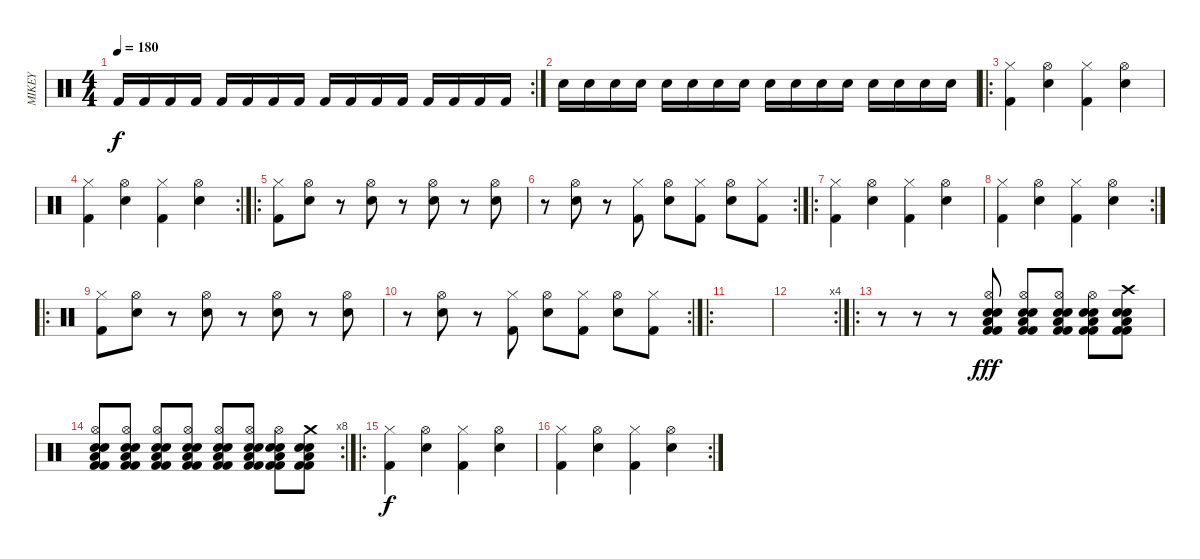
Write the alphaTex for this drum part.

\track ("MIKEY" "MIKEY") {instrument percussion}
\staff {score}
\articulation defaults
\rc 2
\ts (4 4)
\tempo 180
\clef neutral
\ks c "Kick (hit) 2".16{dy f} "Kick (hit) 2".16 "Kick (hit) 2".16 "Kick (hit) 2".16 "Kick (hit) 2".16 "Kick (hit) 2".16 "Kick (hit) 2".16 "Kick (hit) 2".16 "Kick (hit) 2".16 "Kick (hit) 2".16 "Kick (hit) 2".16 "Kick (hit) 2".16 "Kick (hit) 2".16 "Kick (hit) 2".16 "Kick (hit) 2".16 "Kick (hit) 2".16
|
"Snare (hit) 2".16 "Snare (hit) 2".16 "Snare (hit) 2".16 "Snare (hit) 2".16 "Snare (hit) 2".16 "Snare (hit) 2".16 "Snare (hit) 2".16 "Snare (hit) 2".16 "Snare (hit) 2".16 "Snare (hit) 2".16 "Snare (hit) 2".16 "Snare (hit) 2".16 "Snare (hit) 2".16 "Snare (hit) 2".16 "Snare (hit) 2".16 "Snare (hit) 2".16 |
\ro
("Hi-Hat (closed)" "Kick (hit) 2").4 ("Hi-Hat (open)" "Snare (hit) 2").4 ("Hi-Hat (closed)" "Kick (hit) 2").4 ("Hi-Hat (open)" "Snare (hit) 2").4 |
\rc 2
("Hi-Hat (closed)" "Kick (hit) 2").4 ("Hi-Hat (open)" "Snare (hit) 2").4 ("Hi-Hat (closed)" "Kick (hit) 2").4 ("Hi-Hat (open)" "Snare (hit) 2").4 |
\ro
("Hi-Hat (closed)" "Kick (hit) 2").8 ("Hi-Hat (open)" "Snare (hit) 2").8 r.8 ("Hi-Hat (open)" "Snare (hit) 2").8 r.8 ("Hi-Hat (open)" "Snare (hit) 2").8 r.8 ("Hi-Hat (open)" "Snare (hit) 2").8 |
\rc 2
r.8 ("Hi-Hat (open)" "Snare (hit) 2").8 r.8 ("Hi-Hat (closed)" "Kick (hit) 2").8 ("Hi-Hat (open)" "Snare (hit) 2").8 ("Hi-Hat (closed)" "Kick (hit) 2").8 ("Hi-Hat (open)" "Snare (hit) 2").8 ("Hi-Hat (closed)" "Kick (hit) 2").8 |
\ro
("Hi-Hat (closed)" "Kick (hit) 2").4 ("Hi-Hat (open)" "Snare (hit) 2").4 ("Hi-Hat (closed)" "Kick (hit) 2").4 ("Hi-Hat (open)" "Snare (hit) 2").4 |
\rc 2
("Hi-Hat (closed)" "Kick (hit) 2").4 ("Hi-Hat (open)" "Snare (hit) 2").4 ("Hi-Hat (closed)" "Kick (hit) 2").4 ("Hi-Hat (open)" "Snare (hit) 2").4 |
\ro
("Hi-Hat (closed)" "Kick (hit) 2").8 ("Hi-Hat (open)" "Snare (hit) 2").8 r.8 ("Hi-Hat (open)" "Snare (hit) 2").8 r.8 ("Hi-Hat (open)" "Snare (hit) 2").8 r.8 ("Hi-Hat (open)" "Snare (hit) 2").8 |
\rc 2
r.8 ("Hi-Hat (open)" "Snare (hit) 2").8 r.8 ("Hi-Hat (closed)" "Kick (hit) 2").8 ("Hi-Hat (open)" "Snare (hit) 2").8 ("Hi-Hat (closed)" "Kick (hit) 2").8 ("Hi-Hat (open)" "Snare (hit) 2").8 ("Hi-Hat (closed)" "Kick (hit) 2").8 |
\ro
|
\rc 4
|
\ro
r.8 r.8 r.8 ("Hi-Hat (open)" "Low Floor Tom (hit)" "Electric Snare (hit)" "Kick (hit) 2" "Snare (hit) 2" "Kick (hit) 2").8{dy fff} ("Hi-Hat (open)" "Low Floor Tom (hit)" "Electric Snare (hit)" "Kick (hit) 2" "Snare (hit) 2" "Kick (hit) 2").8 ("Hi-Hat (open)" "Low Floor Tom (hit)" "Electric Snare (hit)" "Kick (hit) 2" "Snare (hit) 2" "Kick (hit) 2").8 ("Hi-Hat (open)" "Low Floor Tom (hit)" "Electric Snare (hit)" "Kick (hit) 2" "Snare (hit) 2" "Kick (hit) 2").8 ("Crash high (hit)" "Low Floor Tom (hit)" "Electric Snare (hit)" "Kick (hit) 2" "Snare (hit) 2" "Kick (hit) 2").8 |
\rc 8
("Hi-Hat (open)" "Low Floor Tom (hit)" "Electric Snare (hit)" "Kick (hit) 2" "Snare (hit) 2" "Kick (hit) 2").8 ("Hi-Hat (open)" "Low Floor Tom (hit)" "Electric Snare (hit)" "Kick (hit) 2" "Snare (hit) 2" "Kick (hit) 2").8 ("Hi-Hat (open)" "Low Floor Tom (hit)" "Electric Snare (hit)" "Kick (hit) 2" "Snare (hit) 2" "Kick (hit) 2").8 ("Hi-Hat (open)" "Low Floor Tom (hit)" "Electric Snare (hit)" "Kick (hit) 2" "Snare (hit) 2" "Kick (hit) 2").8 ("Hi-Hat (open)" "Low Floor Tom (hit)" "Electric Snare (hit)" "Kick (hit) 2" "Snare (hit) 2" "Kick (hit) 2").8 ("Hi-Hat (open)" "Low Floor Tom (hit)" "Electric Snare (hit)" "Kick (hit) 2" "Snare (hit) 2" "Kick (hit) 2").8 ("Hi-Hat (open)" "Low Floor Tom (hit)" "Electric Snare (hit)" "Kick (hit) 2" "Snare (hit) 2" "Kick (hit) 2").8 ("Crash medium (hit)" "Low Floor Tom (hit)" "Electric Snare (hit)" "Kick (hit) 2" "Snare (hit) 2" "Kick (hit) 2").8 |
\ro
("Hi-Hat (closed)" "Kick (hit) 2").4{dy f} ("Hi-Hat (open)" "Snare (hit) 2").4 ("Hi-Hat (closed)" "Kick (hit) 2").4 ("Hi-Hat (open)" "Snare (hit) 2").4 |
\rc 2
("Hi-Hat (closed)" "Kick (hit) 2").4 ("Hi-Hat (open)" "Snare (hit) 2").4 ("Hi-Hat (closed)" "Kick (hit) 2").4 ("Hi-Hat (open)" "Snare (hit) 2").4
